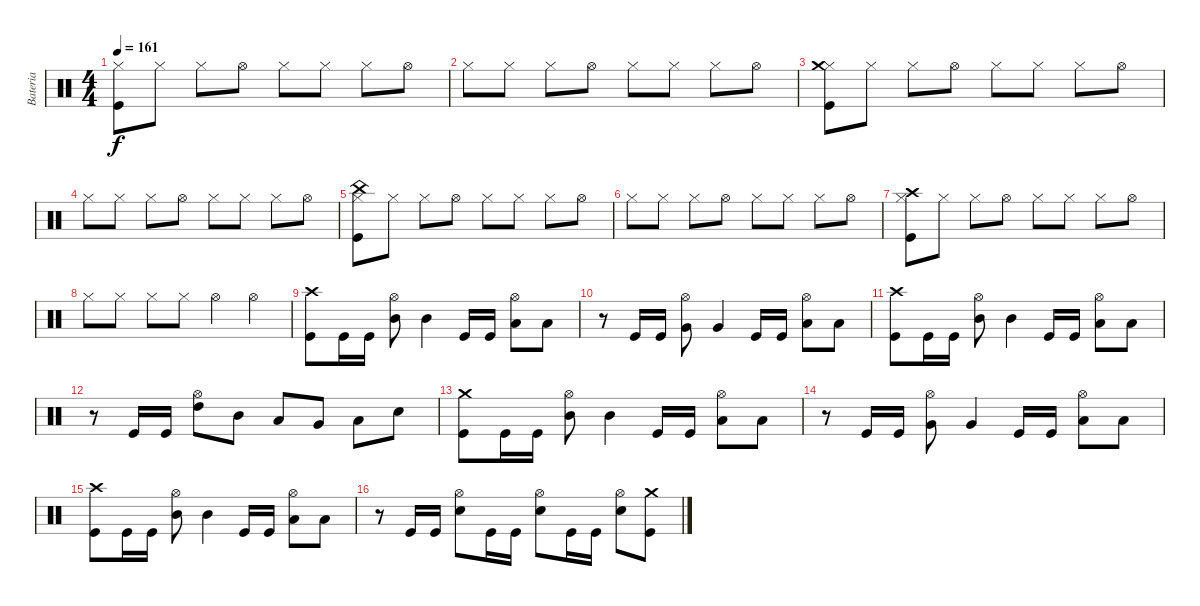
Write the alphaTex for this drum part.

\track ("Bateria" "Bateria") {instrument percussion}
\staff {score}
\articulation defaults
\ts (4 4)
\tempo 161
\clef neutral
\ks c
("Hi-Hat (closed)" "Kick (hit)").8{dy f} "Hi-Hat (closed)".8 "Hi-Hat (closed)".8 "Hi-Hat (open)".8 "Hi-Hat (closed)".8 "Hi-Hat (closed)".8 "Hi-Hat (closed)".8 "Hi-Hat (open)".8 |
"Hi-Hat (closed)".8 "Hi-Hat (closed)".8 "Hi-Hat (closed)".8 "Hi-Hat (open)".8 "Hi-Hat (closed)".8 "Hi-Hat (closed)".8 "Hi-Hat (closed)".8 "Hi-Hat (open)".8 |
("Hi-Hat (closed)" "Kick (hit)" "Crash medium (hit)").8 "Hi-Hat (closed)".8 "Hi-Hat (closed)".8 "Hi-Hat (open)".8 "Hi-Hat (closed)".8 "Hi-Hat (closed)".8 "Hi-Hat (closed)".8 "Hi-Hat (open)".8 |
"Hi-Hat (closed)".8 "Hi-Hat (closed)".8 "Hi-Hat (closed)".8 "Hi-Hat (open)".8 "Hi-Hat (closed)".8 "Hi-Hat (closed)".8 "Hi-Hat (closed)".8 "Hi-Hat (open)".8 |
("Hi-Hat (closed)" "Kick (hit)" "China (hit)").8 "Hi-Hat (closed)".8 "Hi-Hat (closed)".8 "Hi-Hat (open)".8 "Hi-Hat (closed)".8 "Hi-Hat (closed)".8 "Hi-Hat (closed)".8 "Hi-Hat (open)".8 |
"Hi-Hat (closed)".8 "Hi-Hat (closed)".8 "Hi-Hat (closed)".8 "Hi-Hat (open)".8 "Hi-Hat (closed)".8 "Hi-Hat (closed)".8 "Hi-Hat (closed)".8 "Hi-Hat (open)".8 |
("Hi-Hat (closed)" "Kick (hit)" "Crash high (hit)").8 "Hi-Hat (closed)".8 "Hi-Hat (closed)".8 "Hi-Hat (open)".8 "Hi-Hat (closed)".8 "Hi-Hat (closed)".8 "Hi-Hat (closed)".8 "Hi-Hat (open)".8 |
"Hi-Hat (closed)".8 "Hi-Hat (closed)".8 "Hi-Hat (closed)".8 "Hi-Hat (closed)".8 "Hi-Hat (open)".4 "Hi-Hat (open)".4 |
("Kick (hit)" "Crash high (hit)").8 "Kick (hit)".16 "Kick (hit)".16 ("Hi-Hat (open)" "Mid Tom (hit)").8 "Mid Tom (hit)".4 "Kick (hit)".16 "Kick (hit)".16 ("Hi-Hat (open)" "Low Tom (hit)").8 "Low Tom (hit)".8 |
r.8 "Kick (hit)".16 "Kick (hit)".16 ("Hi-Hat (open)" "Very Low Tom (hit)").8 "Very Low Tom (hit)".4 "Kick (hit)".16 "Kick (hit)".16 ("Hi-Hat (open)" "Low Floor Tom (hit)").8 "Low Floor Tom (hit)".8 |
("Kick (hit)" "Crash high (hit)").8 "Kick (hit)".16 "Kick (hit)".16 ("Hi-Hat (open)" "Mid Tom (hit)").8 "Mid Tom (hit)".4 "Kick (hit)".16 "Kick (hit)".16 ("Hi-Hat (open)" "Low Tom (hit)").8 "Low Tom (hit)".8 |
r.8 "Kick (hit)".16 "Kick (hit)".16 ("Hi-Hat (open)" "High Tom (hit)").8 "Mid Tom (hit)".8 "Low Tom (hit)".8 "Very Low Tom (hit)".8 "Low Floor Tom (hit)".8 "Snare (hit) 2".8 |
("Kick (hit)" "Crash medium (hit)").8 "Kick (hit)".16 "Kick (hit)".16 ("Hi-Hat (open)" "Mid Tom (hit)").8 "Mid Tom (hit)".4 "Kick (hit)".16 "Kick (hit)".16 ("Hi-Hat (open)" "Low Tom (hit)").8 "Low Tom (hit)".8 |
r.8 "Kick (hit)".16 "Kick (hit)".16 ("Hi-Hat (open)" "Very Low Tom (hit)").8 "Very Low Tom (hit)".4 "Kick (hit)".16 "Kick (hit)".16 ("Hi-Hat (open)" "Low Floor Tom (hit)").8 "Low Floor Tom (hit)".8 |
("Kick (hit)" "Crash high (hit)").8 "Kick (hit)".16 "Kick (hit)".16 ("Hi-Hat (open)" "Mid Tom (hit)").8 "Mid Tom (hit)".4 "Kick (hit)".16 "Kick (hit)".16 ("Hi-Hat (open)" "Low Tom (hit)").8 "Low Tom (hit)".8 |
r.8 "Kick (hit)".16 "Kick (hit)".16 ("Hi-Hat (open)" "Snare (hit) 2").8 "Kick (hit)".16 "Kick (hit)".16 ("Hi-Hat (open)" "Snare (hit) 2").8 "Kick (hit)".16 "Kick (hit)".16 ("Hi-Hat (open)" "Snare (hit) 2").8 ("Kick (hit)" "Crash medium (hit)").8
